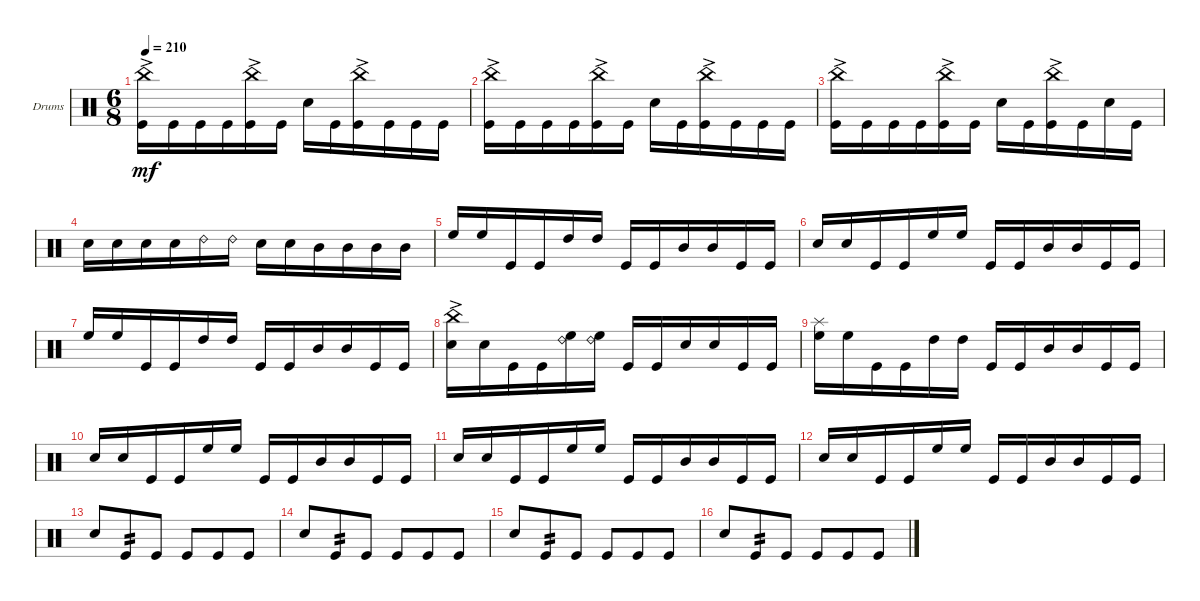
\bracketExtendMode groupsimilarinstruments
\firstSystemTrackNameOrientation horizontal
\otherSystemsTrackNameOrientation horizontal
\track ("Drumkit" "Drums") {instrument percussion}
\staff {score}
\articulation defaults
\ts (6 8)
\tempo 210
\clef neutral
\ks c
("Kick (hit)" "China (hit)"{ac}).16{dy mf} "Kick (hit)".16 "Kick (hit)".16 "Kick (hit)".16 ("Kick (hit)" "China (hit)"{ac}).16 "Kick (hit)".16 "Snare (hit) 2".16 "Kick (hit)".16 ("Kick (hit)" "China (hit)"{ac}).16 "Kick (hit)".16 "Kick (hit)".16 "Kick (hit)".16 |
("Kick (hit)" "China (hit)"{ac}).16 "Kick (hit)".16 "Kick (hit)".16 "Kick (hit)".16 ("Kick (hit)" "China (hit)"{ac}).16 "Kick (hit)".16 "Snare (hit) 2".16 "Kick (hit)".16 ("Kick (hit)" "China (hit)"{ac}).16 "Kick (hit)".16 "Kick (hit)".16 "Kick (hit)".16 |
("Kick (hit)" "China (hit)"{ac}).16 "Kick (hit)".16 "Kick (hit)".16 "Kick (hit)".16 ("Kick (hit)" "China (hit)"{ac}).16 "Kick (hit)".16 "Snare (hit) 2".16 "Kick (hit)".16 ("Kick (hit)" "China (hit)"{ac}).16 "Kick (hit)".16 "Snare (hit) 2".16 "Kick (hit)".16 |
"Snare (hit) 2".16 "Snare (hit) 2".16 "Snare (hit) 2".16 "Snare (hit) 2".16 "Ride (bell) 2".16 "Ride (bell) 2".16 "Snare (hit) 2".16 "Snare (hit) 2".16 "Mid Tom (hit)".16 "Mid Tom (hit)".16 "Mid Tom (hit)".16 "Mid Tom (hit)".16 |
"High Floor Tom (hit)".16 "High Floor Tom (hit)".16 "Kick (hit)".16 "Kick (hit)".16 "High Tom (hit)".16 "High Tom (hit)".16 "Kick (hit)".16 "Kick (hit)".16 "Mid Tom (hit)".16 "Mid Tom (hit)".16 "Kick (hit)".16 "Kick (hit)".16 |
"Snare (hit) 2".16 "Snare (hit) 2".16 "Kick (hit)".16 "Kick (hit)".16 "High Floor Tom (hit)".16 "High Floor Tom (hit)".16 "Kick (hit)".16 "Kick (hit)".16 "Mid Tom (hit)".16 "Mid Tom (hit)".16 "Kick (hit)".16 "Kick (hit)".16 |
"High Floor Tom (hit)".16 "High Floor Tom (hit)".16 "Kick (hit)".16 "Kick (hit)".16 "High Tom (hit)".16 "High Tom (hit)".16 "Kick (hit)".16 "Kick (hit)".16 "Mid Tom (hit)".16 "Mid Tom (hit)".16 "Kick (hit)".16 "Kick (hit)".16 |
("Snare (hit) 2" "China (hit)"{ac}).16 "Snare (hit) 2".16 "Kick (hit)".16 "Kick (hit)".16 ("High Floor Tom (hit)" "Ride (bell) 2").16 ("High Floor Tom (hit)" "Ride (bell) 2").16 "Kick (hit)".16 "Kick (hit)".16 "Snare (hit) 2".16 "Snare (hit) 2".16 "Kick (hit)".16 "Kick (hit)".16 |
("High Floor Tom (hit)" "Splash (hit)").16 "High Floor Tom (hit)".16 "Kick (hit)".16 "Kick (hit)".16 "High Tom (hit)".16 "High Tom (hit)".16 "Kick (hit)".16 "Kick (hit)".16 "Mid Tom (hit)".16 "Mid Tom (hit)".16 "Kick (hit)".16 "Kick (hit)".16 |
"Snare (hit) 2".16 "Snare (hit) 2".16 "Kick (hit)".16 "Kick (hit)".16 "High Floor Tom (hit)".16 "High Floor Tom (hit)".16 "Kick (hit)".16 "Kick (hit)".16 "Mid Tom (hit)".16 "Mid Tom (hit)".16 "Kick (hit)".16 "Kick (hit)".16 |
"Snare (hit) 2".16 "Snare (hit) 2".16 "Kick (hit)".16 "Kick (hit)".16 "High Floor Tom (hit)".16 "High Floor Tom (hit)".16 "Kick (hit)".16 "Kick (hit)".16 "Mid Tom (hit)".16 "Mid Tom (hit)".16 "Kick (hit)".16 "Kick (hit)".16 |
"Snare (hit) 2".16 "Snare (hit) 2".16 "Kick (hit)".16 "Kick (hit)".16 "High Floor Tom (hit)".16 "High Floor Tom (hit)".16 "Kick (hit)".16 "Kick (hit)".16 "Mid Tom (hit)".16 "Mid Tom (hit)".16 "Kick (hit)".16 "Kick (hit)".16 |
"Snare (hit) 2".8 "Kick (hit)".8{tp 2} "Kick (hit)".8 "Kick (hit)".8 "Kick (hit)".8 "Kick (hit)".8 |
"Snare (hit) 2".8 "Kick (hit)".8{tp 2} "Kick (hit)".8 "Kick (hit)".8 "Kick (hit)".8 "Kick (hit)".8 |
"Snare (hit) 2".8 "Kick (hit)".8{tp 2} "Kick (hit)".8 "Kick (hit)".8 "Kick (hit)".8 "Kick (hit)".8 |
"Snare (hit) 2".8 "Kick (hit)".8{tp 2} "Kick (hit)".8 "Kick (hit)".8 "Kick (hit)".8 "Kick (hit)".8
